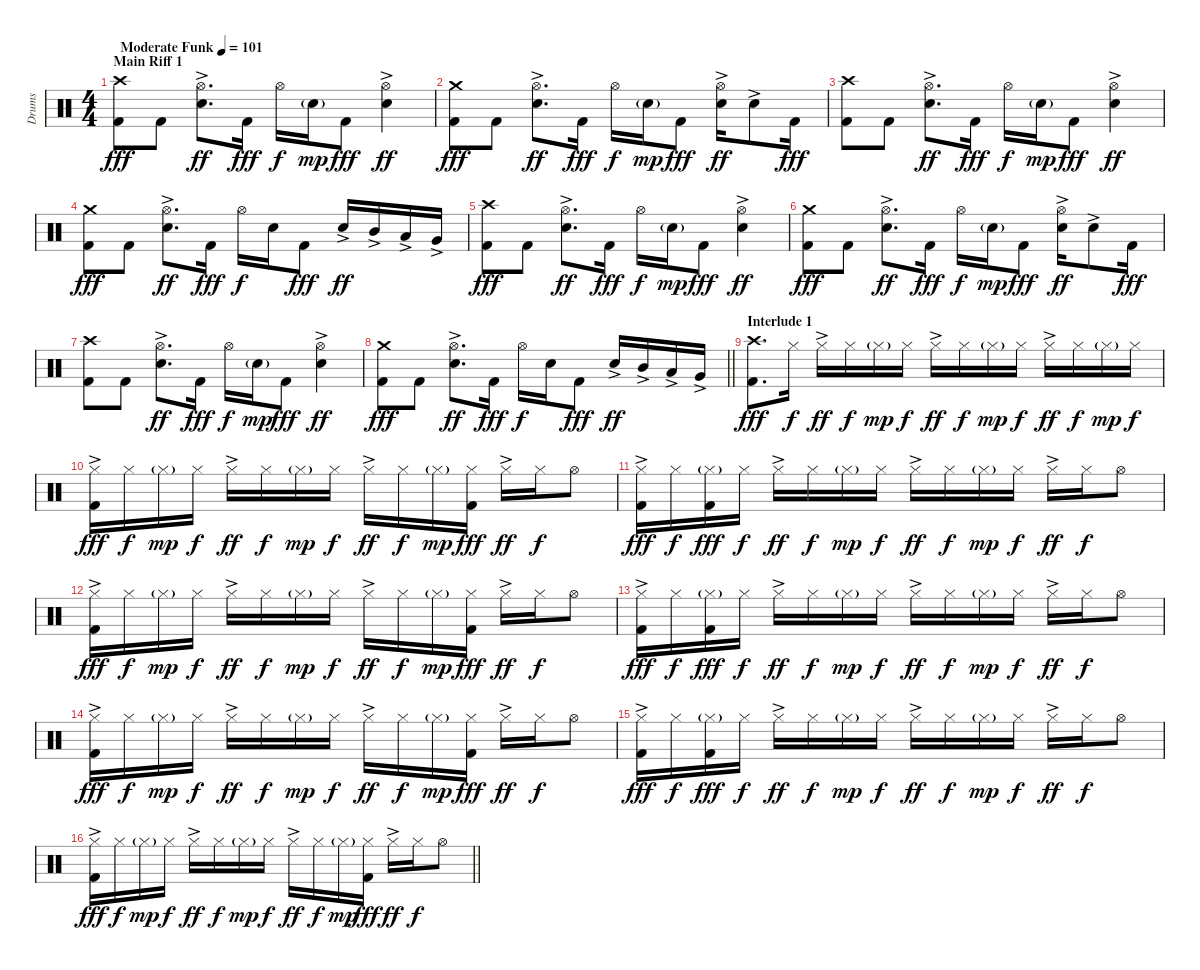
\track ("Drums" "Drums") {instrument percussion}
\staff {score}
\articulation defaults
\ts (4 4)
\section ("" "Main Riff 1")
\tempo (101 "Moderate Funk")
\clef neutral
\ks c
("Crash high (hit)" "Kick (hit) 2").8{dy fff} "Kick (hit) 2".8 ("Hi-Hat (open)" "Electric Snare (hit)"{ac}).8{d dy ff} "Kick (hit) 2".16{dy fff} "Hi-Hat (open)".16{dy f} "Snare (hit) 2"{g}.16{dy mp} "Kick (hit) 2".8{dy fff} ("Hi-Hat (open)" "Electric Snare (hit)"{ac}).4{dy ff} |
("Crash medium (hit)" "Kick (hit) 2").8{dy fff} "Kick (hit) 2".8 ("Hi-Hat (open)" "Electric Snare (hit)"{ac}).8{d dy ff} "Kick (hit) 2".16{dy fff} "Hi-Hat (open)".16{dy f} "Snare (hit) 2"{g}.16{dy mp} "Kick (hit) 2".8{dy fff} ("Hi-Hat (open)" "Electric Snare (hit)"{ac}).16{dy ff} "Electric Snare (hit)"{ac}.8 "Kick (hit) 2".16{dy fff} |
("Crash high (hit)" "Kick (hit) 2").8 "Kick (hit) 2".8 ("Hi-Hat (open)" "Electric Snare (hit)"{ac}).8{d dy ff} "Kick (hit) 2".16{dy fff} "Hi-Hat (open)".16{dy f} "Snare (hit) 2"{g}.16{dy mp} "Kick (hit) 2".8{dy fff} ("Hi-Hat (open)" "Electric Snare (hit)"{ac}).4{dy ff} |
("Crash medium (hit)" "Kick (hit) 2").8{dy fff} "Kick (hit) 2".8 ("Hi-Hat (open)" "Electric Snare (hit)"{ac}).8{d dy ff} "Kick (hit) 2".16{dy fff} "Hi-Hat (open)".16{dy f} "Electric Snare (hit)".16 "Kick (hit) 2".8{dy fff} "Electric Snare (hit)"{ac}.16{dy ff} "Mid Tom (hit)"{ac}.16 "Low Tom (hit)"{ac}.16 "Very Low Tom (hit)"{ac}.16 |
("Crash high (hit)" "Kick (hit) 2").8{dy fff} "Kick (hit) 2".8 ("Hi-Hat (open)" "Electric Snare (hit)"{ac}).8{d dy ff} "Kick (hit) 2".16{dy fff} "Hi-Hat (open)".16{dy f} "Snare (hit) 2"{g}.16{dy mp} "Kick (hit) 2".8{dy fff} ("Hi-Hat (open)" "Electric Snare (hit)"{ac}).4{dy ff} |
("Crash medium (hit)" "Kick (hit) 2").8{dy fff} "Kick (hit) 2".8 ("Hi-Hat (open)" "Electric Snare (hit)"{ac}).8{d dy ff} "Kick (hit) 2".16{dy fff} "Hi-Hat (open)".16{dy f} "Snare (hit) 2"{g}.16{dy mp} "Kick (hit) 2".8{dy fff} ("Hi-Hat (open)" "Electric Snare (hit)"{ac}).16{dy ff} "Electric Snare (hit)"{ac}.8 "Kick (hit) 2".16{dy fff} |
("Crash high (hit)" "Kick (hit) 2").8 "Kick (hit) 2".8 ("Hi-Hat (open)" "Electric Snare (hit)"{ac}).8{d dy ff} "Kick (hit) 2".16{dy fff} "Hi-Hat (open)".16{dy f} "Snare (hit) 2"{g}.16{dy mp} "Kick (hit) 2".8{dy fff} ("Hi-Hat (open)" "Electric Snare (hit)"{ac}).4{dy ff} |
\barLineRight lightlight
("Crash medium (hit)" "Kick (hit) 2").8{dy fff} "Kick (hit) 2".8 ("Hi-Hat (open)" "Electric Snare (hit)"{ac}).8{d dy ff} "Kick (hit) 2".16{dy fff} "Hi-Hat (open)".16{dy f} "Electric Snare (hit)".16 "Kick (hit) 2".8{dy fff} "Electric Snare (hit)"{ac}.16{dy ff} "Mid Tom (hit)"{ac}.16 "Low Tom (hit)"{ac}.16 "Very Low Tom (hit)"{ac}.16 |
\section ("" "Interlude 1")
("Crash high (hit)" "Kick (hit) 2").8{d dy fff} "Hi-Hat (closed)".16{dy f} "Hi-Hat (closed)"{ac}.16{dy ff} "Hi-Hat (closed)".16{dy f} "Hi-Hat (closed)"{g}.16{dy mp} "Hi-Hat (closed)".16{dy f} "Hi-Hat (closed)"{ac}.16{dy ff} "Hi-Hat (closed)".16{dy f} "Hi-Hat (closed)"{g}.16{dy mp} "Hi-Hat (closed)".16{dy f} "Hi-Hat (closed)"{ac}.16{dy ff} "Hi-Hat (closed)".16{dy f} "Hi-Hat (closed)"{g}.16{dy mp} "Hi-Hat (closed)".16{dy f} |
("Hi-Hat (closed)"{ac} "Kick (hit) 2").16{dy fff} "Hi-Hat (closed)".16{dy f} "Hi-Hat (closed)"{g}.16{dy mp} "Hi-Hat (closed)".16{dy f} "Hi-Hat (closed)"{ac}.16{dy ff} "Hi-Hat (closed)".16{dy f} "Hi-Hat (closed)"{g}.16{dy mp} "Hi-Hat (closed)".16{dy f} "Hi-Hat (closed)"{ac}.16{dy ff} "Hi-Hat (closed)".16{dy f} "Hi-Hat (closed)"{g}.16{dy mp} ("Hi-Hat (closed)" "Kick (hit) 2").16{dy fff} "Hi-Hat (closed)"{ac}.16{dy ff} "Hi-Hat (closed)".16{dy f} "Hi-Hat (open)".8 |
("Hi-Hat (closed)"{ac} "Kick (hit) 2").16{dy fff} "Hi-Hat (closed)".16{dy f} ("Hi-Hat (closed)"{g} "Kick (hit) 2").16{dy fff} "Hi-Hat (closed)".16{dy f} "Hi-Hat (closed)"{ac}.16{dy ff} "Hi-Hat (closed)".16{dy f} "Hi-Hat (closed)"{g}.16{dy mp} "Hi-Hat (closed)".16{dy f} "Hi-Hat (closed)"{ac}.16{dy ff} "Hi-Hat (closed)".16{dy f} "Hi-Hat (closed)"{g}.16{dy mp} "Hi-Hat (closed)".16{dy f} "Hi-Hat (closed)"{ac}.16{dy ff} "Hi-Hat (closed)".16{dy f} "Hi-Hat (open)".8 |
("Hi-Hat (closed)"{ac} "Kick (hit) 2").16{dy fff} "Hi-Hat (closed)".16{dy f} "Hi-Hat (closed)"{g}.16{dy mp} "Hi-Hat (closed)".16{dy f} "Hi-Hat (closed)"{ac}.16{dy ff} "Hi-Hat (closed)".16{dy f} "Hi-Hat (closed)"{g}.16{dy mp} "Hi-Hat (closed)".16{dy f} "Hi-Hat (closed)"{ac}.16{dy ff} "Hi-Hat (closed)".16{dy f} "Hi-Hat (closed)"{g}.16{dy mp} ("Hi-Hat (closed)" "Kick (hit) 2").16{dy fff} "Hi-Hat (closed)"{ac}.16{dy ff} "Hi-Hat (closed)".16{dy f} "Hi-Hat (open)".8 |
("Hi-Hat (closed)"{ac} "Kick (hit) 2").16{dy fff} "Hi-Hat (closed)".16{dy f} ("Hi-Hat (closed)"{g} "Kick (hit) 2").16{dy fff} "Hi-Hat (closed)".16{dy f} "Hi-Hat (closed)"{ac}.16{dy ff} "Hi-Hat (closed)".16{dy f} "Hi-Hat (closed)"{g}.16{dy mp} "Hi-Hat (closed)".16{dy f} "Hi-Hat (closed)"{ac}.16{dy ff} "Hi-Hat (closed)".16{dy f} "Hi-Hat (closed)"{g}.16{dy mp} "Hi-Hat (closed)".16{dy f} "Hi-Hat (closed)"{ac}.16{dy ff} "Hi-Hat (closed)".16{dy f} "Hi-Hat (open)".8 |
("Hi-Hat (closed)"{ac} "Kick (hit) 2").16{dy fff} "Hi-Hat (closed)".16{dy f} "Hi-Hat (closed)"{g}.16{dy mp} "Hi-Hat (closed)".16{dy f} "Hi-Hat (closed)"{ac}.16{dy ff} "Hi-Hat (closed)".16{dy f} "Hi-Hat (closed)"{g}.16{dy mp} "Hi-Hat (closed)".16{dy f} "Hi-Hat (closed)"{ac}.16{dy ff} "Hi-Hat (closed)".16{dy f} "Hi-Hat (closed)"{g}.16{dy mp} ("Hi-Hat (closed)" "Kick (hit) 2").16{dy fff} "Hi-Hat (closed)"{ac}.16{dy ff} "Hi-Hat (closed)".16{dy f} "Hi-Hat (open)".8 |
("Hi-Hat (closed)"{ac} "Kick (hit) 2").16{dy fff} "Hi-Hat (closed)".16{dy f} ("Hi-Hat (closed)"{g} "Kick (hit) 2").16{dy fff} "Hi-Hat (closed)".16{dy f} "Hi-Hat (closed)"{ac}.16{dy ff} "Hi-Hat (closed)".16{dy f} "Hi-Hat (closed)"{g}.16{dy mp} "Hi-Hat (closed)".16{dy f} "Hi-Hat (closed)"{ac}.16{dy ff} "Hi-Hat (closed)".16{dy f} "Hi-Hat (closed)"{g}.16{dy mp} "Hi-Hat (closed)".16{dy f} "Hi-Hat (closed)"{ac}.16{dy ff} "Hi-Hat (closed)".16{dy f} "Hi-Hat (open)".8 |
\barLineRight lightlight
("Hi-Hat (closed)"{ac} "Kick (hit) 2").16{dy fff} "Hi-Hat (closed)".16{dy f} "Hi-Hat (closed)"{g}.16{dy mp} "Hi-Hat (closed)".16{dy f} "Hi-Hat (closed)"{ac}.16{dy ff} "Hi-Hat (closed)".16{dy f} "Hi-Hat (closed)"{g}.16{dy mp} "Hi-Hat (closed)".16{dy f} "Hi-Hat (closed)"{ac}.16{dy ff} "Hi-Hat (closed)".16{dy f} "Hi-Hat (closed)"{g}.16{dy mp} ("Hi-Hat (closed)" "Kick (hit) 2").16{dy fff} "Hi-Hat (closed)"{ac}.16{dy ff} "Hi-Hat (closed)".16{dy f} "Hi-Hat (open)".8
